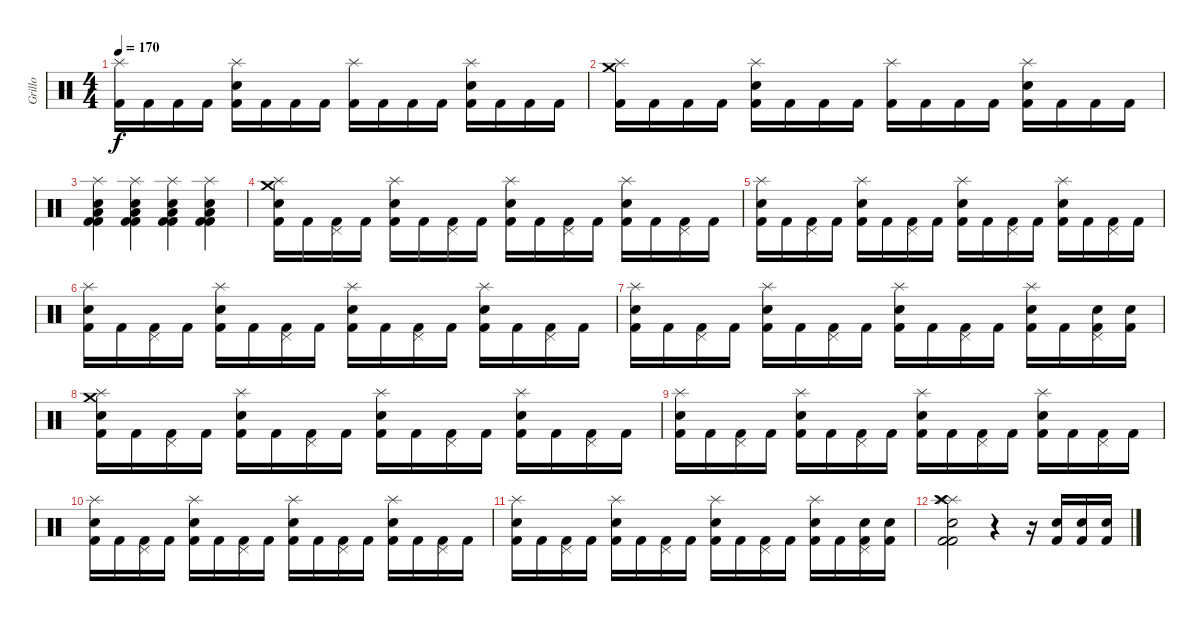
\track ("Grillo" "Grillo") {instrument percussion}
\staff {score}
\articulation defaults
\ts (4 4)
\tempo 170
\clef neutral
\ks c
("Splash (hit)" "Kick (hit) 2").16{dy f} "Kick (hit) 2".16 "Kick (hit) 2".16 "Kick (hit) 2".16 ("Electric Snare (hit)" "Splash (hit)" "Kick (hit) 2").16 "Kick (hit) 2".16 "Kick (hit) 2".16 "Kick (hit) 2".16 ("Splash (hit)" "Kick (hit) 2").16 "Kick (hit) 2".16 "Kick (hit) 2".16 "Kick (hit) 2".16 ("Electric Snare (hit)" "Splash (hit)" "Kick (hit) 2").16 "Kick (hit) 2".16 "Kick (hit) 2".16 "Kick (hit) 2".16 |
("Splash (hit)" "Crash medium (hit)" "Kick (hit) 2").16 "Kick (hit) 2".16 "Kick (hit) 2".16 "Kick (hit) 2".16 ("Electric Snare (hit)" "Splash (hit)" "Kick (hit) 2").16 "Kick (hit) 2".16 "Kick (hit) 2".16 "Kick (hit) 2".16 ("Splash (hit)" "Kick (hit) 2").16 "Kick (hit) 2".16 "Kick (hit) 2".16 "Kick (hit) 2".16 ("Electric Snare (hit)" "Splash (hit)" "Kick (hit) 2").16 "Kick (hit) 2".16 "Kick (hit) 2".16 "Kick (hit) 2".16 |
("Snare (hit) 2" "Splash (hit)" "Low Tom (hit)" "Kick (hit) 2" "Kick (hit) 2").4 ("Snare (hit) 2" "Splash (hit)" "Low Tom (hit)" "Kick (hit) 2" "Kick (hit) 2").4 ("Snare (hit) 2" "Splash (hit)" "Low Tom (hit)" "Kick (hit) 2" "Kick (hit) 2").4 ("Snare (hit) 2" "Splash (hit)" "Low Tom (hit)" "Kick (hit) 2" "Kick (hit) 2").4 |
("Electric Snare (hit)" "Splash (hit)" "Crash medium (hit)" "Kick (hit) 2").16 "Kick (hit) 2".16 ("Pedal Hi-Hat (hit)" "Kick (hit) 2").16 "Kick (hit) 2".16 ("Electric Snare (hit)" "Splash (hit)" "Kick (hit) 2").16 "Kick (hit) 2".16 ("Pedal Hi-Hat (hit)" "Kick (hit) 2").16 "Kick (hit) 2".16 ("Electric Snare (hit)" "Splash (hit)" "Kick (hit) 2").16 "Kick (hit) 2".16 ("Pedal Hi-Hat (hit)" "Kick (hit) 2").16 "Kick (hit) 2".16 ("Electric Snare (hit)" "Splash (hit)" "Kick (hit) 2").16 "Kick (hit) 2".16 ("Pedal Hi-Hat (hit)" "Kick (hit) 2").16 "Kick (hit) 2".16 |
("Electric Snare (hit)" "Splash (hit)" "Kick (hit) 2").16 "Kick (hit) 2".16 ("Pedal Hi-Hat (hit)" "Kick (hit) 2").16 "Kick (hit) 2".16 ("Electric Snare (hit)" "Splash (hit)" "Kick (hit) 2").16 "Kick (hit) 2".16 ("Pedal Hi-Hat (hit)" "Kick (hit) 2").16 "Kick (hit) 2".16 ("Electric Snare (hit)" "Splash (hit)" "Kick (hit) 2").16 "Kick (hit) 2".16 ("Pedal Hi-Hat (hit)" "Kick (hit) 2").16 "Kick (hit) 2".16 ("Electric Snare (hit)" "Splash (hit)" "Kick (hit) 2").16 "Kick (hit) 2".16 ("Pedal Hi-Hat (hit)" "Kick (hit) 2").16 "Kick (hit) 2".16 |
("Electric Snare (hit)" "Splash (hit)" "Kick (hit) 2").16 "Kick (hit) 2".16 ("Pedal Hi-Hat (hit)" "Kick (hit) 2").16 "Kick (hit) 2".16 ("Electric Snare (hit)" "Splash (hit)" "Kick (hit) 2").16 "Kick (hit) 2".16 ("Pedal Hi-Hat (hit)" "Kick (hit) 2").16 "Kick (hit) 2".16 ("Electric Snare (hit)" "Splash (hit)" "Kick (hit) 2").16 "Kick (hit) 2".16 ("Pedal Hi-Hat (hit)" "Kick (hit) 2").16 "Kick (hit) 2".16 ("Electric Snare (hit)" "Splash (hit)" "Kick (hit) 2").16 "Kick (hit) 2".16 ("Pedal Hi-Hat (hit)" "Kick (hit) 2").16 "Kick (hit) 2".16 |
("Electric Snare (hit)" "Splash (hit)" "Kick (hit) 2").16 "Kick (hit) 2".16 ("Pedal Hi-Hat (hit)" "Kick (hit) 2").16 "Kick (hit) 2".16 ("Electric Snare (hit)" "Splash (hit)" "Kick (hit) 2").16 "Kick (hit) 2".16 ("Pedal Hi-Hat (hit)" "Kick (hit) 2").16 "Kick (hit) 2".16 ("Electric Snare (hit)" "Splash (hit)" "Kick (hit) 2").16 "Kick (hit) 2".16 ("Pedal Hi-Hat (hit)" "Kick (hit) 2").16 "Kick (hit) 2".16 ("Electric Snare (hit)" "Splash (hit)" "Kick (hit) 2").16 "Kick (hit) 2".16 ("Electric Snare (hit)" "Pedal Hi-Hat (hit)" "Kick (hit) 2").16 ("Electric Snare (hit)" "Kick (hit) 2").16 |
("Electric Snare (hit)" "Splash (hit)" "Crash medium (hit)" "Kick (hit) 2").16 "Kick (hit) 2".16 ("Pedal Hi-Hat (hit)" "Kick (hit) 2").16 "Kick (hit) 2".16 ("Electric Snare (hit)" "Splash (hit)" "Kick (hit) 2").16 "Kick (hit) 2".16 ("Pedal Hi-Hat (hit)" "Kick (hit) 2").16 "Kick (hit) 2".16 ("Electric Snare (hit)" "Splash (hit)" "Kick (hit) 2").16 "Kick (hit) 2".16 ("Pedal Hi-Hat (hit)" "Kick (hit) 2").16 "Kick (hit) 2".16 ("Electric Snare (hit)" "Splash (hit)" "Kick (hit) 2").16 "Kick (hit) 2".16 ("Pedal Hi-Hat (hit)" "Kick (hit) 2").16 "Kick (hit) 2".16 |
("Electric Snare (hit)" "Splash (hit)" "Kick (hit) 2").16 "Kick (hit) 2".16 ("Pedal Hi-Hat (hit)" "Kick (hit) 2").16 "Kick (hit) 2".16 ("Electric Snare (hit)" "Splash (hit)" "Kick (hit) 2").16 "Kick (hit) 2".16 ("Pedal Hi-Hat (hit)" "Kick (hit) 2").16 "Kick (hit) 2".16 ("Electric Snare (hit)" "Splash (hit)" "Kick (hit) 2").16 "Kick (hit) 2".16 ("Pedal Hi-Hat (hit)" "Kick (hit) 2").16 "Kick (hit) 2".16 ("Electric Snare (hit)" "Splash (hit)" "Kick (hit) 2").16 "Kick (hit) 2".16 ("Pedal Hi-Hat (hit)" "Kick (hit) 2").16 "Kick (hit) 2".16 |
("Electric Snare (hit)" "Splash (hit)" "Kick (hit) 2").16 "Kick (hit) 2".16 ("Pedal Hi-Hat (hit)" "Kick (hit) 2").16 "Kick (hit) 2".16 ("Electric Snare (hit)" "Splash (hit)" "Kick (hit) 2").16 "Kick (hit) 2".16 ("Pedal Hi-Hat (hit)" "Kick (hit) 2").16 "Kick (hit) 2".16 ("Electric Snare (hit)" "Splash (hit)" "Kick (hit) 2").16 "Kick (hit) 2".16 ("Pedal Hi-Hat (hit)" "Kick (hit) 2").16 "Kick (hit) 2".16 ("Electric Snare (hit)" "Splash (hit)" "Kick (hit) 2").16 "Kick (hit) 2".16 ("Pedal Hi-Hat (hit)" "Kick (hit) 2").16 "Kick (hit) 2".16 |
("Electric Snare (hit)" "Splash (hit)" "Kick (hit) 2").16 "Kick (hit) 2".16 ("Pedal Hi-Hat (hit)" "Kick (hit) 2").16 "Kick (hit) 2".16 ("Electric Snare (hit)" "Splash (hit)" "Kick (hit) 2").16 "Kick (hit) 2".16 ("Pedal Hi-Hat (hit)" "Kick (hit) 2").16 "Kick (hit) 2".16 ("Electric Snare (hit)" "Splash (hit)" "Kick (hit) 2").16 "Kick (hit) 2".16 ("Pedal Hi-Hat (hit)" "Kick (hit) 2").16 "Kick (hit) 2".16 ("Electric Snare (hit)" "Splash (hit)" "Kick (hit) 2").16 "Kick (hit) 2".16 ("Electric Snare (hit)" "Pedal Hi-Hat (hit)" "Kick (hit) 2").16 ("Electric Snare (hit)" "Kick (hit) 2").16 |
("Electric Snare (hit)" "Splash (hit)" "Splash (hit)" "Crash high (hit)" "Kick (hit) 2" "Kick (hit) 2").2 r.4 r.16 ("Electric Snare (hit)" "Kick (hit) 2").16 ("Electric Snare (hit)" "Kick (hit) 2").16 ("Electric Snare (hit)" "Kick (hit) 2").16
